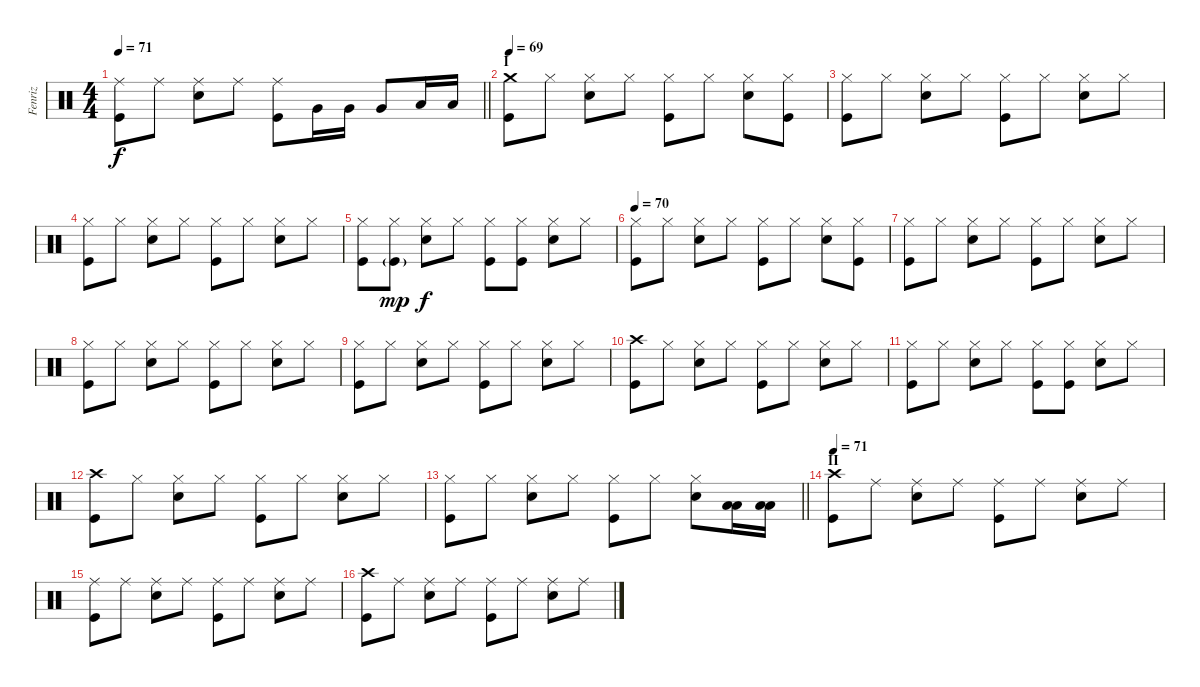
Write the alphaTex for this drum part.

\track ("Fenriz" "Fenriz") {instrument percussion}
\staff {score}
\articulation defaults
\ts (4 4)
\tempo 71
\clef neutral
\barLineRight lightlight
\ks c
("Kick (hit)" "Ride (middle)").8{dy f} "Ride (middle)".8 ("Snare (hit) 2" "Ride (middle)").8 "Ride (middle)".8 ("Kick (hit)" "Ride (middle)").8 "Very Low Tom (hit)".16 "Very Low Tom (hit)".16 "Very Low Tom (hit)".8 "Low Floor Tom (hit)".16 "Low Floor Tom (hit)".16 |
\section ("" "I")
\tempo 69
("Kick (hit)" "Crash medium (hit)").8 "Hi-Hat (closed)".8 ("Snare (hit) 2" "Hi-Hat (closed)").8 "Hi-Hat (closed)".8 ("Kick (hit)" "Hi-Hat (closed)").8 "Hi-Hat (closed)".8 ("Snare (hit) 2" "Hi-Hat (closed)").8 ("Kick (hit)" "Hi-Hat (closed)").8 |
("Kick (hit)" "Hi-Hat (closed)").8 "Hi-Hat (closed)".8 ("Snare (hit) 2" "Hi-Hat (closed)").8 "Hi-Hat (closed)".8 ("Kick (hit)" "Hi-Hat (closed)").8 "Hi-Hat (closed)".8 ("Snare (hit) 2" "Hi-Hat (closed)").8 "Hi-Hat (closed)".8 |
("Kick (hit)" "Hi-Hat (closed)").8 "Hi-Hat (closed)".8 ("Snare (hit) 2" "Hi-Hat (closed)").8 "Hi-Hat (closed)".8 ("Kick (hit)" "Hi-Hat (closed)").8 "Hi-Hat (closed)".8 ("Snare (hit) 2" "Hi-Hat (closed)").8 "Hi-Hat (closed)".8 |
("Kick (hit)" "Hi-Hat (closed)").8 ("Kick (hit)"{g} "Hi-Hat (closed)").8{dy mp} ("Snare (hit) 2" "Hi-Hat (closed)").8{dy f} "Hi-Hat (closed)".8 ("Kick (hit)" "Hi-Hat (closed)").8 ("Kick (hit)" "Hi-Hat (closed)").8 ("Snare (hit) 2" "Hi-Hat (closed)").8 "Hi-Hat (closed)".8 |
\tempo 70
("Kick (hit)" "Hi-Hat (closed)").8 "Hi-Hat (closed)".8 ("Snare (hit) 2" "Hi-Hat (closed)").8 "Hi-Hat (closed)".8 ("Kick (hit)" "Hi-Hat (closed)").8 "Hi-Hat (closed)".8 ("Snare (hit) 2" "Hi-Hat (closed)").8 ("Kick (hit)" "Hi-Hat (closed)").8 |
("Kick (hit)" "Hi-Hat (closed)").8 "Hi-Hat (closed)".8 ("Snare (hit) 2" "Hi-Hat (closed)").8 "Hi-Hat (closed)".8 ("Kick (hit)" "Hi-Hat (closed)").8 "Hi-Hat (closed)".8 ("Snare (hit) 2" "Hi-Hat (closed)").8 "Hi-Hat (closed)".8 |
("Kick (hit)" "Hi-Hat (closed)").8 "Hi-Hat (closed)".8 ("Snare (hit) 2" "Hi-Hat (closed)").8 "Hi-Hat (closed)".8 ("Kick (hit)" "Hi-Hat (closed)").8 "Hi-Hat (closed)".8 ("Snare (hit) 2" "Hi-Hat (closed)").8 "Hi-Hat (closed)".8 |
("Kick (hit)" "Hi-Hat (closed)").8 "Hi-Hat (closed)".8 ("Snare (hit) 2" "Hi-Hat (closed)").8 "Hi-Hat (closed)".8 ("Kick (hit)" "Hi-Hat (closed)").8 "Hi-Hat (closed)".8 ("Snare (hit) 2" "Hi-Hat (closed)").8 "Hi-Hat (closed)".8 |
("Kick (hit)" "Crash high (hit)").8 "Hi-Hat (closed)".8 ("Snare (hit) 2" "Hi-Hat (closed)").8 "Hi-Hat (closed)".8 ("Kick (hit)" "Hi-Hat (closed)").8 "Hi-Hat (closed)".8 ("Snare (hit) 2" "Hi-Hat (closed)").8 "Hi-Hat (closed)".8 |
("Kick (hit)" "Hi-Hat (closed)").8 "Hi-Hat (closed)".8 ("Snare (hit) 2" "Hi-Hat (closed)").8 "Hi-Hat (closed)".8 ("Kick (hit)" "Hi-Hat (closed)").8 ("Kick (hit)" "Hi-Hat (closed)").8 ("Snare (hit) 2" "Hi-Hat (closed)").8 "Hi-Hat (closed)".8 |
("Kick (hit)" "Crash high (hit)").8 "Hi-Hat (closed)".8 ("Snare (hit) 2" "Hi-Hat (closed)").8 "Hi-Hat (closed)".8 ("Kick (hit)" "Hi-Hat (closed)").8 "Hi-Hat (closed)".8 ("Snare (hit) 2" "Hi-Hat (closed)").8 "Hi-Hat (closed)".8 |
\barLineRight lightlight
("Kick (hit)" "Hi-Hat (closed)").8 "Hi-Hat (closed)".8 ("Snare (hit) 2" "Hi-Hat (closed)").8 "Hi-Hat (closed)".8 ("Kick (hit)" "Hi-Hat (closed)").8 "Hi-Hat (closed)".8 ("Snare (hit) 2" "Hi-Hat (closed)").8 ("Low Floor Tom (hit)" "Low Tom (hit)").16 ("Low Floor Tom (hit)" "Low Tom (hit)").16 |
\section ("" "II")
\tempo 71
("Kick (hit)" "Crash high (hit)").8 "Ride (middle)".8 ("Snare (hit) 2" "Ride (middle)").8 "Ride (middle)".8 ("Kick (hit)" "Ride (middle)").8 "Ride (middle)".8 ("Snare (hit) 2" "Ride (middle)").8 "Ride (middle)".8 |
("Kick (hit)" "Ride (middle)").8 "Ride (middle)".8 ("Snare (hit) 2" "Ride (middle)").8 "Ride (middle)".8 ("Kick (hit)" "Ride (middle)").8 "Ride (middle)".8 ("Snare (hit) 2" "Ride (middle)").8 "Ride (middle)".8 |
("Kick (hit)" "Crash high (hit)").8 "Ride (middle)".8 ("Snare (hit) 2" "Ride (middle)").8 "Ride (middle)".8 ("Kick (hit)" "Ride (middle)").8 "Ride (middle)".8 ("Snare (hit) 2" "Ride (middle)").8 "Ride (middle)".8
